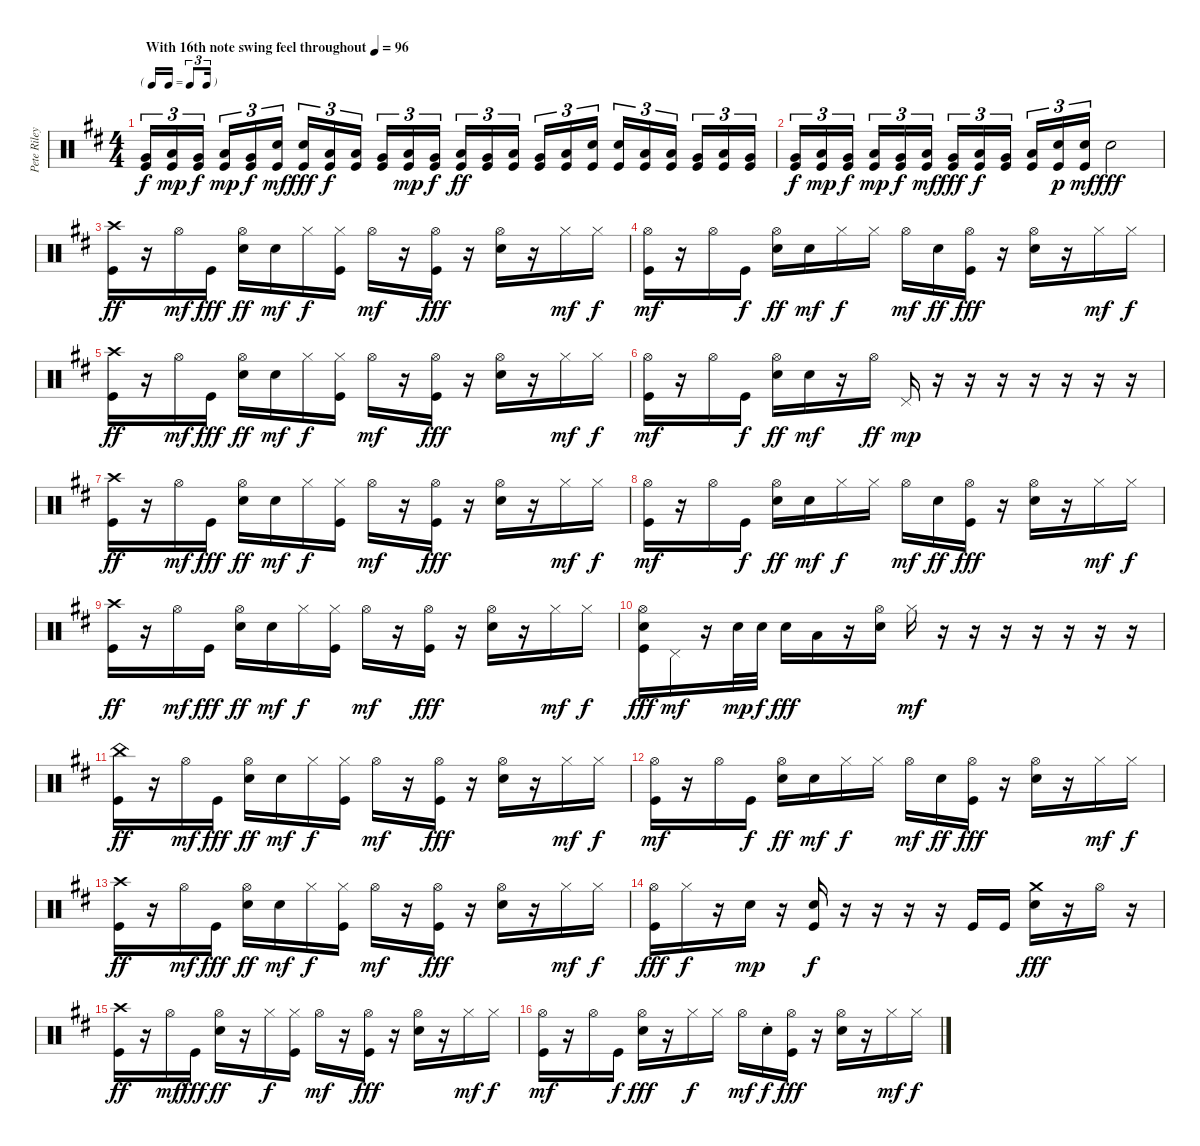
\track ("Pete Riley" "Pete Riley") {instrument percussion}
\staff {score}
\articulation defaults
\ts (4 4)
\tf triplet16th
\section ("" "")
\tempo (96 "With 16th note swing feel throughout")
\clef neutral
\ks d
("Very Low Tom (hit)" "Kick (hit)").16{tu (3 2) dy f} ("Low Floor Tom (hit)" "Kick (hit)").16{tu (3 2) dy mp} ("Very Low Tom (hit)" "Kick (hit)").16{tu (3 2) dy f beam splitsecondary} ("Low Floor Tom (hit)" "Kick (hit)").16{tu (3 2) dy mp} ("Very Low Tom (hit)" "Kick (hit)").16{tu (3 2) dy f} ("Electric Snare (hit)" "Kick (hit)").16{tu (3 2) dy mf} ("Electric Snare (hit)" "Kick (hit)").16{tu (3 2) dy fff} ("Low Floor Tom (hit)" "Kick (hit)").16{tu (3 2) dy f} ("Low Tom (hit)" "Kick (hit)").16{tu (3 2) beam splitsecondary} ("Very Low Tom (hit)" "Kick (hit)").16{tu (3 2)} ("Low Floor Tom (hit)" "Kick (hit)").16{tu (3 2) dy mp} ("Very Low Tom (hit)" "Kick (hit)").16{tu (3 2) dy f} ("Low Floor Tom (hit)" "Kick (hit)").16{tu (3 2) dy ff} ("Very Low Tom (hit)" "Kick (hit)").16{tu (3 2)} ("Low Floor Tom (hit)" "Kick (hit)").16{tu (3 2) beam splitsecondary} ("Very Low Tom (hit)" "Kick (hit)").16{tu (3 2)} ("Low Floor Tom (hit)" "Kick (hit)").16{tu (3 2)} ("Electric Snare (hit)" "Kick (hit)").16{tu (3 2)} ("Electric Snare (hit)" "Kick (hit)").16{tu (3 2)} ("Low Floor Tom (hit)" "Kick (hit)").16{tu (3 2)} ("Low Tom (hit)" "Kick (hit)").16{tu (3 2) beam splitsecondary} ("Very Low Tom (hit)" "Kick (hit)").16{tu (3 2)} ("Low Floor Tom (hit)" "Kick (hit)").16{tu (3 2)} ("Very Low Tom (hit)" "Kick (hit)").16{tu (3 2)} |
("Very Low Tom (hit)" "Kick (hit)").16{tu (3 2) dy f} ("Low Floor Tom (hit)" "Kick (hit)").16{tu (3 2) dy mp} ("Very Low Tom (hit)" "Kick (hit)").16{tu (3 2) dy f beam splitsecondary} ("Low Floor Tom (hit)" "Kick (hit)").16{tu (3 2) dy mp} ("Very Low Tom (hit)" "Kick (hit)").16{tu (3 2) dy f} ("Low Floor Tom (hit)" "Kick (hit)").16{tu (3 2) dy mf} ("Very Low Tom (hit)" "Kick (hit)").16{tu (3 2) dy fff} ("Low Floor Tom (hit)" "Kick (hit)").16{tu (3 2) dy f} ("Very Low Tom (hit)" "Kick (hit)").16{tu (3 2) beam splitsecondary} ("Low Floor Tom (hit)" "Kick (hit)").16{tu (3 2)} ("Electric Snare (hit)" "Kick (hit)").16{tu (3 2) dy p} ("Electric Snare (hit)" "Kick (hit)").16{tu (3 2) dy mf} "Electric Snare (hit)".2{dy fff} |
("Crash high (hit)" "Kick (hit)").16{dy ff} r.16 "Hi-Hat (open)".16{dy mf} "Kick (hit)".16{dy fff} ("Hi-Hat (open)" "Electric Snare (hit)").16{dy ff} "Electric Snare (hit)".16{dy mf} "Hi-Hat (closed)".16{dy f} ("Hi-Hat (closed)" "Kick (hit)").16 "Hi-Hat (open)".16{dy mf} r.16 ("Hi-Hat (open)" "Kick (hit)").16{dy fff} r.16 ("Hi-Hat (open)" "Electric Snare (hit)").16 r.16 "Hi-Hat (closed)".16{dy mf} "Hi-Hat (closed)".16{dy f} |
("Hi-Hat (open)" "Kick (hit)").16{dy mf} r.16 "Hi-Hat (open)".16 "Kick (hit)".16{dy f} ("Hi-Hat (open)" "Electric Snare (hit)").16{dy ff} "Electric Snare (hit)".16{dy mf} "Hi-Hat (closed)".16{dy f} "Hi-Hat (closed)".16 "Hi-Hat (open)".16{dy mf} "Electric Snare (hit)".16{dy ff} ("Hi-Hat (open)" "Kick (hit)").16{dy fff} r.16 ("Hi-Hat (open)" "Electric Snare (hit)").16 r.16 "Hi-Hat (closed)".16{dy mf} "Hi-Hat (closed)".16{dy f} |
("Crash high (hit)" "Kick (hit)").16{dy ff} r.16 "Hi-Hat (open)".16{dy mf} "Kick (hit)".16{dy fff} ("Hi-Hat (open)" "Electric Snare (hit)").16{dy ff} "Electric Snare (hit)".16{dy mf} "Hi-Hat (closed)".16{dy f} ("Hi-Hat (closed)" "Kick (hit)").16 "Hi-Hat (open)".16{dy mf} r.16 ("Hi-Hat (open)" "Kick (hit)").16{dy fff} r.16 ("Hi-Hat (open)" "Electric Snare (hit)").16 r.16 "Hi-Hat (closed)".16{dy mf} "Hi-Hat (closed)".16{dy f} |
("Hi-Hat (open)" "Kick (hit)").16{dy mf} r.16 "Hi-Hat (open)".16 "Kick (hit)".16{dy f} ("Hi-Hat (open)" "Electric Snare (hit)").16{dy ff} "Electric Snare (hit)".16{dy mf} r.16 "Hi-Hat (open)".16{dy ff} "Pedal Hi-Hat (hit)".16{dy mp} r.16 r.16 r.16 r.16 r.16 r.16 r.16 |
("Crash high (hit)" "Kick (hit)").16{dy ff} r.16 "Hi-Hat (open)".16{dy mf} "Kick (hit)".16{dy fff} ("Hi-Hat (open)" "Electric Snare (hit)").16{dy ff} "Electric Snare (hit)".16{dy mf} "Hi-Hat (closed)".16{dy f} ("Hi-Hat (closed)" "Kick (hit)").16 "Hi-Hat (open)".16{dy mf} r.16 ("Hi-Hat (open)" "Kick (hit)").16{dy fff} r.16 ("Hi-Hat (open)" "Electric Snare (hit)").16 r.16 "Hi-Hat (closed)".16{dy mf} "Hi-Hat (closed)".16{dy f} |
("Hi-Hat (open)" "Kick (hit)").16{dy mf} r.16 "Hi-Hat (open)".16 "Kick (hit)".16{dy f} ("Hi-Hat (open)" "Electric Snare (hit)").16{dy ff} "Electric Snare (hit)".16{dy mf} "Hi-Hat (closed)".16{dy f} "Hi-Hat (closed)".16 "Hi-Hat (open)".16{dy mf} "Electric Snare (hit)".16{dy ff} ("Hi-Hat (open)" "Kick (hit)").16{dy fff} r.16 ("Hi-Hat (open)" "Electric Snare (hit)").16 r.16 "Hi-Hat (closed)".16{dy mf} "Hi-Hat (closed)".16{dy f} |
("Crash high (hit)" "Kick (hit)").16{dy ff} r.16 "Hi-Hat (open)".16{dy mf} "Kick (hit)".16{dy fff} ("Hi-Hat (open)" "Electric Snare (hit)").16{dy ff} "Electric Snare (hit)".16{dy mf} "Hi-Hat (closed)".16{dy f} ("Hi-Hat (closed)" "Kick (hit)").16 "Hi-Hat (open)".16{dy mf} r.16 ("Hi-Hat (open)" "Kick (hit)").16{dy fff} r.16 ("Hi-Hat (open)" "Electric Snare (hit)").16 r.16 "Hi-Hat (closed)".16{dy mf} "Hi-Hat (closed)".16{dy f} |
("Hi-Hat (open)" "Electric Snare (hit)" "Kick (hit)").16{dy fff} "Pedal Hi-Hat (hit)".16{dy mf} r.16 "Electric Snare (hit)".32{dy mp} "Electric Snare (hit)".32{dy f} "Electric Snare (hit)".16{dy fff} "Low Tom (hit)".16 r.16 ("Hi-Hat (open)" "Electric Snare (hit)").16 "Hi-Hat (closed)".16{dy mf} r.16 r.16 r.16 r.16 r.16 r.16 r.16 |
("China (hit)" "Kick (hit)").16{dy ff} r.16 "Hi-Hat (open)".16{dy mf} "Kick (hit)".16{dy fff} ("Hi-Hat (open)" "Electric Snare (hit)").16{dy ff} "Electric Snare (hit)".16{dy mf} "Hi-Hat (closed)".16{dy f} ("Hi-Hat (closed)" "Kick (hit)").16 "Hi-Hat (open)".16{dy mf} r.16 ("Hi-Hat (open)" "Kick (hit)").16{dy fff} r.16 ("Hi-Hat (open)" "Electric Snare (hit)").16 r.16 "Hi-Hat (closed)".16{dy mf} "Hi-Hat (closed)".16{dy f} |
("Hi-Hat (open)" "Kick (hit)").16{dy mf} r.16 "Hi-Hat (open)".16 "Kick (hit)".16{dy f} ("Hi-Hat (open)" "Electric Snare (hit)").16{dy ff} "Electric Snare (hit)".16{dy mf} "Hi-Hat (closed)".16{dy f} "Hi-Hat (closed)".16 "Hi-Hat (open)".16{dy mf} "Electric Snare (hit)".16{dy ff} ("Hi-Hat (open)" "Kick (hit)").16{dy fff} r.16 ("Hi-Hat (open)" "Electric Snare (hit)").16 r.16 "Hi-Hat (closed)".16{dy mf} "Hi-Hat (closed)".16{dy f} |
("Crash high (hit)" "Kick (hit)").16{dy ff} r.16 "Hi-Hat (open)".16{dy mf} "Kick (hit)".16{dy fff} ("Hi-Hat (open)" "Electric Snare (hit)").16{dy ff} "Electric Snare (hit)".16{dy mf} "Hi-Hat (closed)".16{dy f} ("Hi-Hat (closed)" "Kick (hit)").16 "Hi-Hat (open)".16{dy mf} r.16 ("Hi-Hat (open)" "Kick (hit)").16{dy fff} r.16 ("Hi-Hat (open)" "Electric Snare (hit)").16 r.16 "Hi-Hat (closed)".16{dy mf} "Hi-Hat (closed)".16{dy f} |
("Hi-Hat (open)" "Kick (hit)").16{dy fff} "Hi-Hat (closed)".16{dy f} r.16 "Electric Snare (hit)".16{dy mp} r.16 ("Electric Snare (hit)" "Kick (hit)").16{dy f} r.16 r.16 r.16 r.16 "Kick (hit)".16 "Kick (hit)".16 ("Crash medium (hit)" "Electric Snare (hit)").16{dy fff} r.16 "Hi-Hat (open)".16 r.16 |
("Crash high (hit)" "Kick (hit)").16{dy ff} r.16 "Hi-Hat (open)".16{dy mf} "Kick (hit)".16{dy fff} ("Hi-Hat (open)" "Electric Snare (hit)").16{dy ff} r.16 "Hi-Hat (closed)".16{dy f} ("Hi-Hat (closed)" "Kick (hit)").16 "Hi-Hat (open)".16{dy mf} r.16 ("Hi-Hat (open)" "Kick (hit)").16{dy fff} r.16 ("Hi-Hat (open)" "Electric Snare (hit)").16 r.16 "Hi-Hat (closed)".16{dy mf} "Hi-Hat (closed)".16{dy f} |
("Hi-Hat (open)" "Kick (hit)").16{dy mf} r.16 "Hi-Hat (open)".16 "Kick (hit)".16{dy f} ("Hi-Hat (open)" "Electric Snare (hit)").16{dy fff} r.16 "Hi-Hat (closed)".16{dy f} "Hi-Hat (closed)".16 "Hi-Hat (open)".16{dy mf} "Electric Snare (hit)"{st}.16{dy f} ("Hi-Hat (open)" "Kick (hit)").16{dy fff} r.16 ("Hi-Hat (open)" "Electric Snare (hit)").16 r.16 "Hi-Hat (closed)".16{dy mf} "Hi-Hat (closed)".16{dy f}
